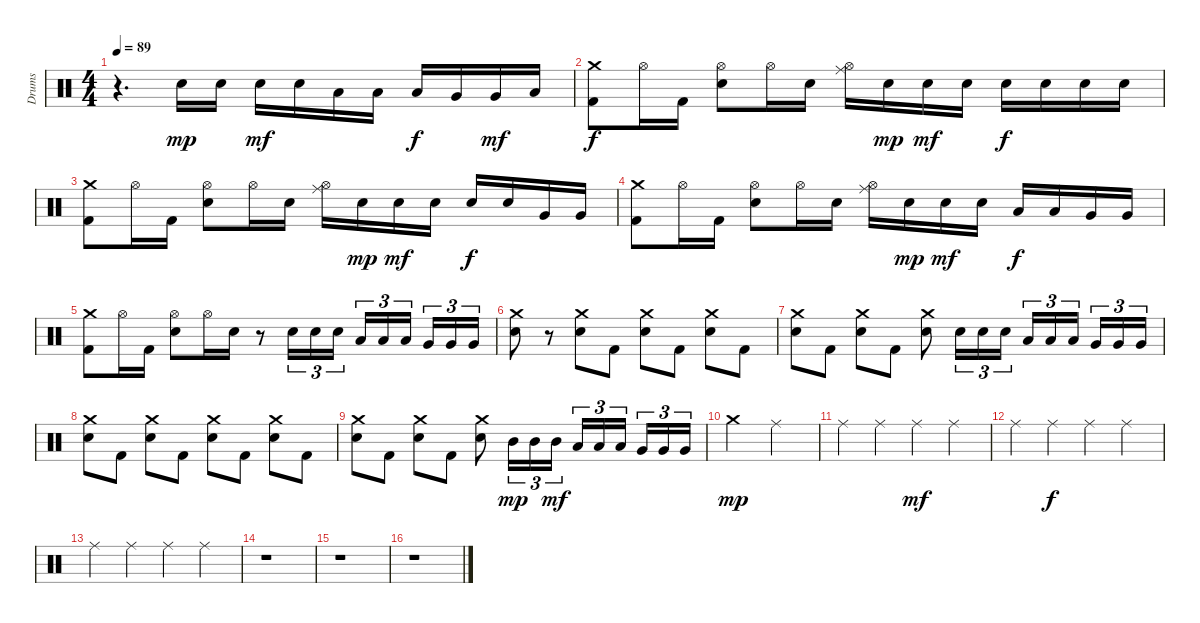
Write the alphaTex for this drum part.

\track ("Drums" "Drums") {instrument percussion}
\staff {score}
\articulation defaults
\ts (4 4)
\tempo 89
\clef neutral
\ks c
r.4{d dy mf} "Electric Snare (hit)".16{dy mp} "Electric Snare (hit)".16 "Electric Snare (hit)".16{dy mf} "Electric Snare (hit)".16 "Low Tom (hit)".16 "Low Tom (hit)".16 "Low Tom (hit)".16{dy f} "Very Low Tom (hit)".16 "Very Low Tom (hit)".16{dy mf} "Low Floor Tom (hit)".16 |
("Crash medium (hit)" "Kick (hit) 2").8{dy f} "Hi-Hat (open)".16 "Kick (hit) 2".16 ("Hi-Hat (open)" "Electric Snare (hit)").8 "Hi-Hat (open)".16 "Electric Snare (hit)".16 ("Ride (middle)" "Hi-Hat (open)").16 "Electric Snare (hit)".16{dy mp} "Electric Snare (hit)".16{dy mf} "Electric Snare (hit)".16 "Electric Snare (hit)".16{dy f} "Electric Snare (hit)".16 "Electric Snare (hit)".16 "Electric Snare (hit)".16 |
("Crash medium (hit)" "Kick (hit) 2").8 "Hi-Hat (open)".16 "Kick (hit) 2".16 ("Hi-Hat (open)" "Electric Snare (hit)").8 "Hi-Hat (open)".16 "Electric Snare (hit)".16 ("Ride (middle)" "Hi-Hat (open)").16 "Electric Snare (hit)".16{dy mp} "Electric Snare (hit)".16{dy mf} "Electric Snare (hit)".16 "Electric Snare (hit)".16{dy f} "Electric Snare (hit)".16 "Very Low Tom (hit)".16 "Very Low Tom (hit)".16 |
("Crash medium (hit)" "Kick (hit) 2").8 "Hi-Hat (open)".16 "Kick (hit) 2".16 ("Hi-Hat (open)" "Electric Snare (hit)").8 "Hi-Hat (open)".16 "Electric Snare (hit)".16 ("Ride (middle)" "Hi-Hat (open)").16 "Electric Snare (hit)".16{dy mp} "Electric Snare (hit)".16{dy mf} "Electric Snare (hit)".16 "Low Tom (hit)".16{dy f} "Low Tom (hit)".16 "Very Low Tom (hit)".16 "Very Low Tom (hit)".16 |
("Crash medium (hit)" "Kick (hit) 2").8 "Hi-Hat (open)".16 "Kick (hit) 2".16 ("Hi-Hat (open)" "Electric Snare (hit)").8 "Hi-Hat (open)".16 "Electric Snare (hit)".16 r.8 "Electric Snare (hit)".16{tu (3 2)} "Electric Snare (hit)".16{tu (3 2)} "Electric Snare (hit)".16{tu (3 2)} "Low Tom (hit)".16{tu (3 2)} "Low Tom (hit)".16{tu (3 2)} "Low Tom (hit)".16{tu (3 2)} "Very Low Tom (hit)".16{tu (3 2)} "Very Low Tom (hit)".16{tu (3 2)} "Very Low Tom (hit)".16{tu (3 2)} |
("Crash medium (hit)" "Electric Snare (hit)").8 r.8 ("Crash medium (hit)" "Electric Snare (hit)").8 "Kick (hit) 2".8 ("Crash medium (hit)" "Electric Snare (hit)").8 "Kick (hit) 2".8 ("Crash medium (hit)" "Electric Snare (hit)").8 "Kick (hit) 2".8 |
("Crash medium (hit)" "Electric Snare (hit)").8 "Kick (hit) 2".8 ("Crash medium (hit)" "Electric Snare (hit)").8 "Kick (hit) 2".8 ("Crash medium (hit)" "Electric Snare (hit)").8 "Electric Snare (hit)".16{tu (3 2)} "Electric Snare (hit)".16{tu (3 2)} "Electric Snare (hit)".16{tu (3 2)} "Low Tom (hit)".16{tu (3 2)} "Low Tom (hit)".16{tu (3 2)} "Low Tom (hit)".16{tu (3 2)} "Very Low Tom (hit)".16{tu (3 2)} "Very Low Tom (hit)".16{tu (3 2)} "Very Low Tom (hit)".16{tu (3 2)} |
("Crash medium (hit)" "Electric Snare (hit)").8 "Kick (hit) 2".8 ("Crash medium (hit)" "Electric Snare (hit)").8 "Kick (hit) 2".8 ("Crash medium (hit)" "Electric Snare (hit)").8 "Kick (hit) 2".8 ("Crash medium (hit)" "Electric Snare (hit)").8 "Kick (hit) 2".8 |
("Crash medium (hit)" "Electric Snare (hit)").8 "Kick (hit) 2".8 ("Crash medium (hit)" "Electric Snare (hit)").8 "Kick (hit) 2".8 ("Crash medium (hit)" "Electric Snare (hit)").8 "Mid Tom (hit)".16{tu (3 2) dy mp} "Mid Tom (hit)".16{tu (3 2)} "Mid Tom (hit)".16{tu (3 2) dy mf} "Low Tom (hit)".16{tu (3 2)} "Low Tom (hit)".16{tu (3 2)} "Low Tom (hit)".16{tu (3 2)} "Very Low Tom (hit)".16{tu (3 2)} "Very Low Tom (hit)".16{tu (3 2)} "Very Low Tom (hit)".16{tu (3 2)} |
"Crash medium (hit)".2{dy mp} "Ride (middle)".2 |
"Ride (middle)".4 "Ride (middle)".4 "Ride (middle)".4{dy mf} "Ride (middle)".4 |
"Ride (middle)".4 "Ride (middle)".4{dy f} "Ride (middle)".4 "Ride (middle)".4 |
"Ride (middle)".4 "Ride (middle)".4 "Ride (middle)".4 "Ride (middle)".4 |
r.1 |
r.1 |
r.1
